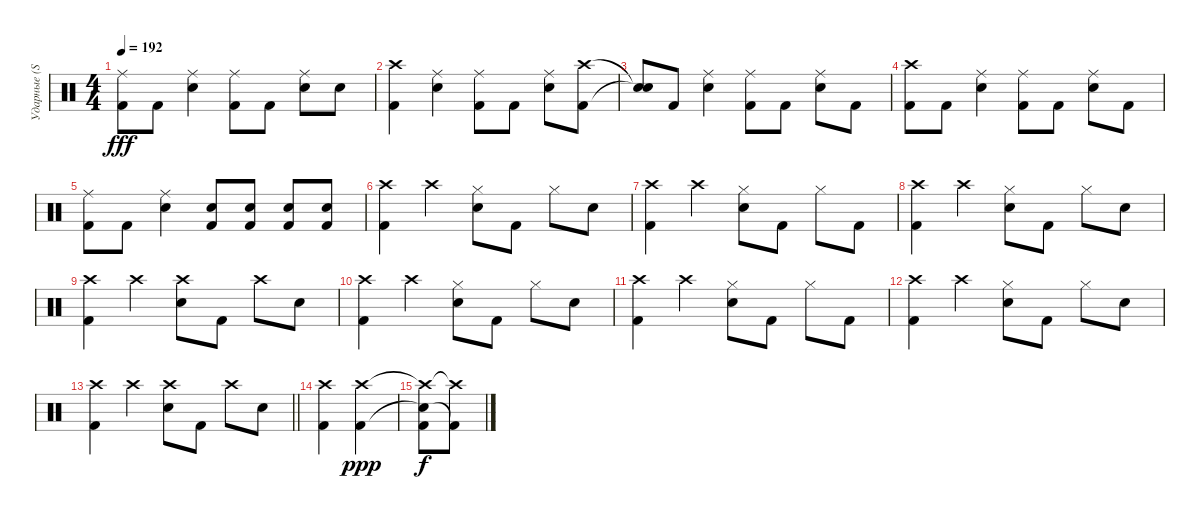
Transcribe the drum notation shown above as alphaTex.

\track ("Ударные (Steve Jocz)" "Ударные (S") {instrument percussion}
\staff {score}
\articulation defaults
\ts (4 4)
\tempo 192
\clef neutral
\ks c
("Ride (middle)" "Kick (hit) 2").8{dy fff} "Kick (hit) 2".8 ("Ride (middle)" "Electric Snare (hit)").4 ("Ride (middle)" "Kick (hit) 2").8 "Kick (hit) 2".8 ("Ride (middle)" "Electric Snare (hit)").8 "Electric Snare (hit)".8 |
("Crash high (hit)" "Kick (hit) 2").4 ("Ride (middle)" "Electric Snare (hit)").4 ("Ride (middle)" "Kick (hit) 2").8 "Kick (hit) 2".8 ("Ride (middle)" "Electric Snare (hit)").8 ("Crash high (hit)" "Kick (hit) 2").8 |
("Snare (hit)"{t} "Snare (hit)"{t}).8 "Kick (hit) 2".8 ("Ride (middle)" "Electric Snare (hit)").4 ("Ride (middle)" "Kick (hit) 2").8 "Kick (hit) 2".8 ("Ride (middle)" "Electric Snare (hit)").8 "Kick (hit) 2".8 |
("Crash high (hit)" "Kick (hit) 2").8 "Kick (hit) 2".8 ("Ride (middle)" "Electric Snare (hit)").4 ("Ride (middle)" "Kick (hit) 2").8 "Kick (hit) 2".8 ("Ride (middle)" "Electric Snare (hit)").8 "Kick (hit) 2".8 |
("Ride (middle)" "Kick (hit) 2").8 "Kick (hit) 2".8 ("Ride (middle)" "Electric Snare (hit)").4 ("Electric Snare (hit)" "Kick (hit) 2").8 ("Electric Snare (hit)" "Kick (hit) 2").8 ("Electric Snare (hit)" "Kick (hit) 2").8 ("Electric Snare (hit)" "Kick (hit) 2").8 |
("Crash high (hit)" "Kick (hit) 2").4 "Crash high (hit)".4 ("Hi-Hat (closed)" "Electric Snare (hit)").8 "Kick (hit) 2".8 "Hi-Hat (closed)".8 "Electric Snare (hit)".8 |
("Crash high (hit)" "Kick (hit) 2").4 "Crash high (hit)".4 ("Hi-Hat (closed)" "Electric Snare (hit)").8 "Kick (hit) 2".8 "Hi-Hat (closed)".8 "Kick (hit) 2".8 |
("Crash high (hit)" "Kick (hit) 2").4 "Crash high (hit)".4 ("Hi-Hat (closed)" "Electric Snare (hit)").8 "Kick (hit) 2".8 "Hi-Hat (closed)".8 "Electric Snare (hit)".8 |
("Crash high (hit)" "Kick (hit) 2").4 "Crash high (hit)".4 ("Crash high (hit)" "Electric Snare (hit)").8 "Kick (hit) 2".8 "Crash high (hit)".8 "Electric Snare (hit)".8 |
("Crash high (hit)" "Kick (hit) 2").4 "Crash high (hit)".4 ("Hi-Hat (closed)" "Electric Snare (hit)").8 "Kick (hit) 2".8 "Hi-Hat (closed)".8 "Electric Snare (hit)".8 |
("Crash high (hit)" "Kick (hit) 2").4 "Crash high (hit)".4 ("Hi-Hat (closed)" "Electric Snare (hit)").8 "Kick (hit) 2".8 "Hi-Hat (closed)".8 "Kick (hit) 2".8 |
("Crash high (hit)" "Kick (hit) 2").4 "Crash high (hit)".4 ("Hi-Hat (closed)" "Electric Snare (hit)").8 "Kick (hit) 2".8 "Hi-Hat (closed)".8 "Electric Snare (hit)".8 |
\barLineRight lightlight
("Crash high (hit)" "Kick (hit) 2").4 "Crash high (hit)".4 ("Crash high (hit)" "Electric Snare (hit)").8 "Kick (hit) 2".8 "Crash high (hit)".8 "Electric Snare (hit)".8 |
("Crash high (hit)" "Kick (hit) 2").4 ("Crash high (hit)" "Kick (hit) 2").4{dy ppp} |
("Crash high (hit)"{t} "Snare (hit)"{t} "Kick (hit) 2").8{dy f} ("Crash high (hit)"{t} "Kick (hit) 2"{t}).8
